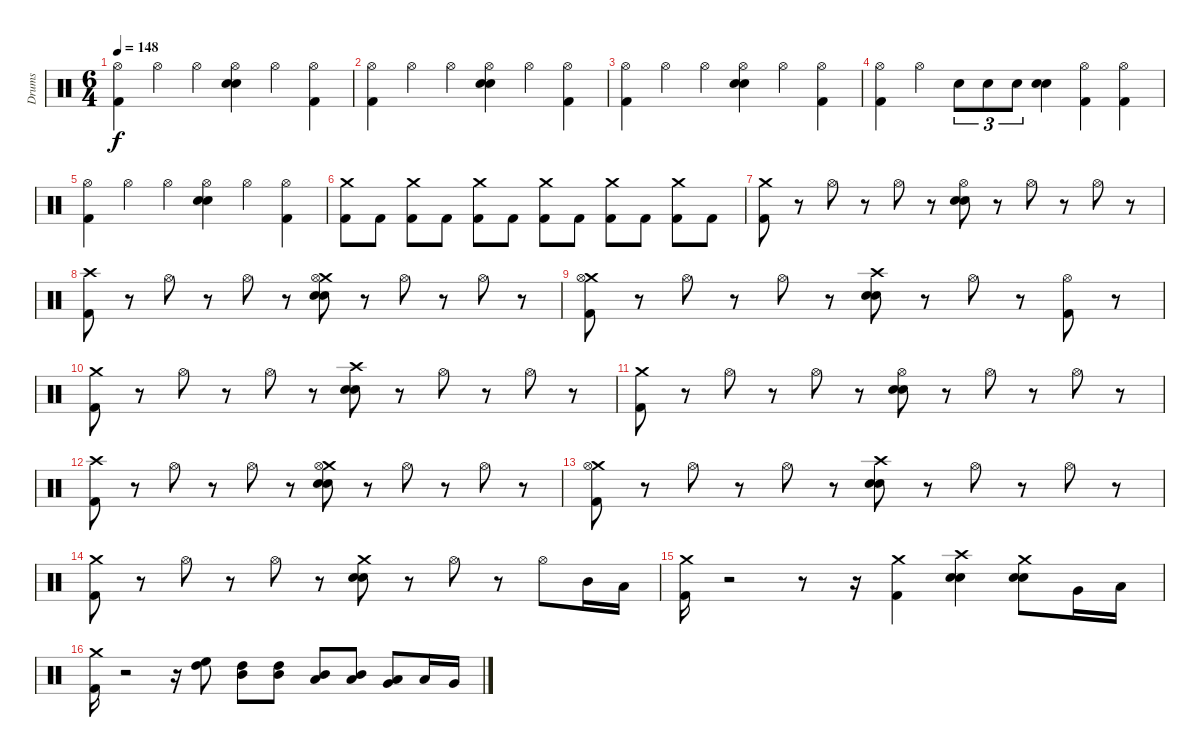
\track ("Drums" "Drums") {instrument percussion}
\staff {score}
\articulation defaults
\ts (6 4)
\tempo 148
\clef neutral
\ks c
("Kick (hit) 2" "Hi-Hat (open)").4{dy f} "Hi-Hat (open)".4 "Hi-Hat (open)".4 ("Snare (hit) 2" "Hi-Hat (open)" "Electric Snare (hit)").4 "Hi-Hat (open)".4 ("Hi-Hat (open)" "Kick (hit) 2").4 |
("Kick (hit) 2" "Hi-Hat (open)").4 "Hi-Hat (open)".4 "Hi-Hat (open)".4 ("Snare (hit) 2" "Electric Snare (hit)" "Hi-Hat (open)").4 "Hi-Hat (open)".4 ("Kick (hit) 2" "Hi-Hat (open)").4 |
("Hi-Hat (open)" "Kick (hit) 2").4 "Hi-Hat (open)".4 "Hi-Hat (open)".4 ("Hi-Hat (open)" "Snare (hit) 2" "Electric Snare (hit)").4 "Hi-Hat (open)".4 ("Hi-Hat (open)" "Kick (hit) 2").4 |
("Kick (hit) 2" "Hi-Hat (open)").4 "Hi-Hat (open)".4 "Snare (hit) 2".8{tu (3 2)} "Snare (hit) 2".8{tu (3 2)} "Snare (hit) 2".8{tu (3 2)} ("Snare (hit) 2" "Electric Snare (hit)").4 ("Kick (hit) 2" "Hi-Hat (open)").4 ("Kick (hit) 2" "Hi-Hat (open)").4 |
("Hi-Hat (open)" "Kick (hit) 2").4 "Hi-Hat (open)".4 "Hi-Hat (open)".4 ("Hi-Hat (open)" "Snare (hit) 2" "Electric Snare (hit)").4 "Hi-Hat (open)".4 ("Hi-Hat (open)" "Kick (hit) 2").4 |
("Crash medium (hit)" "Kick (hit) 2").8 "Kick (hit) 2".8 ("Crash medium (hit)" "Kick (hit) 2").8 "Kick (hit) 2".8 ("Crash medium (hit)" "Kick (hit) 2").8 "Kick (hit) 2".8 ("Crash medium (hit)" "Kick (hit) 2").8 "Kick (hit) 2".8 ("Crash medium (hit)" "Kick (hit) 2").8 "Kick (hit) 2".8 ("Crash medium (hit)" "Kick (hit) 2").8 "Kick (hit) 2".8 |
("Crash medium (hit)" "Kick (hit) 2").8 r.8 "Hi-Hat (open)".8 r.8 "Hi-Hat (open)".8 r.8 ("Snare (hit) 2" "Hi-Hat (open)" "Electric Snare (hit)").8 r.8 "Hi-Hat (open)".8 r.8 "Hi-Hat (open)".8 r.8 |
("Crash high (hit)" "Kick (hit) 2").8 r.8 "Hi-Hat (open)".8 r.8 "Hi-Hat (open)".8 r.8 ("Crash medium (hit)" "Snare (hit) 2" "Electric Snare (hit)" "Hi-Hat (open)").8 r.8 "Hi-Hat (open)".8 r.8 "Hi-Hat (open)".8 r.8 |
("Crash medium (hit)" "Kick (hit) 2" "Hi-Hat (open)").8 r.8 "Hi-Hat (open)".8 r.8 "Hi-Hat (open)".8 r.8 ("Electric Snare (hit)" "Snare (hit) 2" "Crash high (hit)").8 r.8 "Hi-Hat (open)".8 r.8 ("Kick (hit) 2" "Hi-Hat (open)").8 r.8 |
("Kick (hit) 2" "Crash medium (hit)").8 r.8 "Hi-Hat (open)".8 r.8 "Hi-Hat (open)".8 r.8 ("Snare (hit) 2" "Electric Snare (hit)" "Crash high (hit)").8 r.8 "Hi-Hat (open)".8 r.8 "Hi-Hat (open)".8 r.8 |
("Crash medium (hit)" "Kick (hit) 2").8 r.8 "Hi-Hat (open)".8 r.8 "Hi-Hat (open)".8 r.8 ("Hi-Hat (open)" "Snare (hit) 2" "Electric Snare (hit)").8 r.8 "Hi-Hat (open)".8 r.8 "Hi-Hat (open)".8 r.8 |
("Crash high (hit)" "Kick (hit) 2").8 r.8 "Hi-Hat (open)".8 r.8 "Hi-Hat (open)".8 r.8 ("Crash medium (hit)" "Snare (hit) 2" "Electric Snare (hit)" "Hi-Hat (open)").8 r.8 "Hi-Hat (open)".8 r.8 "Hi-Hat (open)".8 r.8 |
("Crash medium (hit)" "Kick (hit) 2" "Hi-Hat (open)").8 r.8 "Hi-Hat (open)".8 r.8 "Hi-Hat (open)".8 r.8 ("Snare (hit) 2" "Electric Snare (hit)" "Crash high (hit)").8 r.8 "Hi-Hat (open)".8 r.8 "Hi-Hat (open)".8 r.8 |
("Kick (hit) 2" "Crash medium (hit)").8 r.8 "Hi-Hat (open)".8 r.8 "Hi-Hat (open)".8 r.8 ("Snare (hit) 2" "Electric Snare (hit)" "Crash medium (hit)").8 r.8 "Hi-Hat (open)".8 r.8 "Hi-Hat (open)".8 "Mid Tom (hit)".16 "Low Tom (hit)".16 |
("Crash medium (hit)" "Kick (hit) 2").16 r.2 r.8 r.16 ("Crash medium (hit)" "Kick (hit) 2").4 ("Electric Snare (hit)" "Crash high (hit)" "Snare (hit) 2").4 ("Electric Snare (hit)" "Crash medium (hit)" "Snare (hit) 2").8 "Very Low Tom (hit)".16 "Low Floor Tom (hit)".16 |
("Crash medium (hit)" "Kick (hit) 2").16 r.2 r.16 ("High Tom (hit)" "High Floor Tom (hit)").8 ("Mid Tom (hit)" "High Tom (hit)").8 ("High Tom (hit)" "Mid Tom (hit)").8 ("Mid Tom (hit)" "Low Tom (hit)").8 ("Mid Tom (hit)" "Low Tom (hit)").8 ("Low Tom (hit)" "Very Low Tom (hit)").8 "Low Tom (hit)".16 "Very Low Tom (hit)".16
